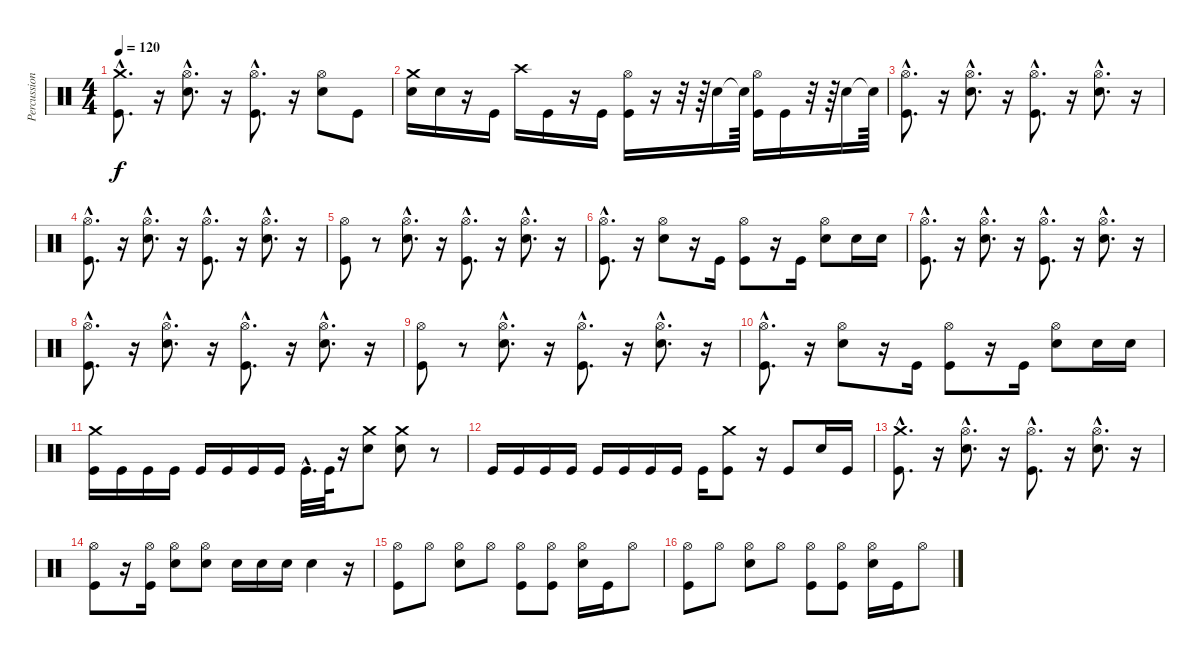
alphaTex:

\track ("Percussion" "Percussion") {instrument percussion}
\staff {score}
\articulation defaults
\ts (4 4)
\tempo 120
\clef neutral
\ks c
("Kick (hit)"{hac} "Crash medium (hit)"{hac}).8{d dy f} r.16 ("Hi-Hat (open)"{hac} "Electric Snare (hit)"{hac}).8{d} r.16 ("Hi-Hat (open)"{hac} "Kick (hit)"{hac}).8{d} r.16 ("Hi-Hat (open)" "Electric Snare (hit)").8 "Kick (hit)".8 |
("Electric Snare (hit)" "Crash medium (hit)").16 "Electric Snare (hit)".16 r.16 "Kick (hit)".16 "Crash high (hit)".16 "Kick (hit)".16 r.16 "Kick (hit)".16 ("Hi-Hat (open)" "Kick (hit)").16 r.16 r.32 r.64 "Electric Snare (hit)".16 "Snare (hit)"{t}.64 ("Hi-Hat (open)" "Kick (hit)").16 "Kick (hit)".16 r.32 r.64 "Electric Snare (hit)".16 "Snare (hit)"{t}.64 |
("Hi-Hat (open)"{hac} "Kick (hit)"{hac}).8{d} r.16 ("Hi-Hat (open)"{hac} "Electric Snare (hit)"{hac}).8{d} r.16 ("Hi-Hat (open)"{hac} "Kick (hit)"{hac}).8{d} r.16 ("Hi-Hat (open)"{hac} "Electric Snare (hit)"{hac}).8{d} r.16 |
("Hi-Hat (open)"{hac} "Kick (hit)"{hac}).8{d} r.16 ("Hi-Hat (open)"{hac} "Electric Snare (hit)"{hac}).8{d} r.16 ("Hi-Hat (open)"{hac} "Kick (hit)"{hac}).8{d} r.16 ("Hi-Hat (open)"{hac} "Electric Snare (hit)"{hac}).8{d} r.16 |
("Hi-Hat (open)" "Kick (hit)").8 r.8 ("Hi-Hat (open)"{hac} "Electric Snare (hit)"{hac}).8{d} r.16 ("Hi-Hat (open)"{hac} "Kick (hit)"{hac}).8{d} r.16 ("Hi-Hat (open)"{hac} "Electric Snare (hit)"{hac}).8{d} r.16 |
("Hi-Hat (open)"{hac} "Kick (hit)"{hac}).8{d} r.16 ("Hi-Hat (open)" "Electric Snare (hit)").8 r.16 "Kick (hit)".16 ("Hi-Hat (open)" "Kick (hit)").8 r.16 "Kick (hit)".16 ("Hi-Hat (open)" "Electric Snare (hit)").8 "Electric Snare (hit)".16 "Electric Snare (hit)".16 |
("Hi-Hat (open)"{hac} "Kick (hit)"{hac}).8{d} r.16 ("Hi-Hat (open)"{hac} "Electric Snare (hit)"{hac}).8{d} r.16 ("Hi-Hat (open)"{hac} "Kick (hit)"{hac}).8{d} r.16 ("Hi-Hat (open)"{hac} "Electric Snare (hit)"{hac}).8{d} r.16 |
("Hi-Hat (open)"{hac} "Kick (hit)"{hac}).8{d} r.16 ("Hi-Hat (open)"{hac} "Electric Snare (hit)"{hac}).8{d} r.16 ("Hi-Hat (open)"{hac} "Kick (hit)"{hac}).8{d} r.16 ("Hi-Hat (open)"{hac} "Electric Snare (hit)"{hac}).8{d} r.16 |
("Hi-Hat (open)" "Kick (hit)").8 r.8 ("Hi-Hat (open)"{hac} "Electric Snare (hit)"{hac}).8{d} r.16 ("Hi-Hat (open)"{hac} "Kick (hit)"{hac}).8{d} r.16 ("Hi-Hat (open)"{hac} "Electric Snare (hit)"{hac}).8{d} r.16 |
("Hi-Hat (open)"{hac} "Kick (hit)"{hac}).8{d} r.16 ("Hi-Hat (open)" "Electric Snare (hit)").8 r.16 "Kick (hit)".16 ("Hi-Hat (open)" "Kick (hit)").8 r.16 "Kick (hit)".16 ("Hi-Hat (open)" "Electric Snare (hit)").8 "Electric Snare (hit)".16 "Electric Snare (hit)".16 |
("Kick (hit)" "Crash medium (hit)").16 "Kick (hit)".16 "Kick (hit)".16 "Kick (hit)".16 "Kick (hit)".16 "Kick (hit)".16 "Kick (hit)".16 "Kick (hit)".16 "Kick (hit)"{hac}.32{d} "Kick (hit)".64 r.16 ("Electric Snare (hit)" "Crash medium (hit)").8 ("Electric Snare (hit)" "Crash medium (hit)").8 r.8 |
"Kick (hit)".16 "Kick (hit)".16 "Kick (hit)".16 "Kick (hit)".16 "Kick (hit)".16 "Kick (hit)".16 "Kick (hit)".16 "Kick (hit)".16 "Kick (hit)".16 ("Crash medium (hit)" "Kick (hit)").8 r.16 "Kick (hit)".8 "Electric Snare (hit)".16 "Kick (hit)".16 |
("Kick (hit)"{hac} "Crash medium (hit)"{hac}).8{d} r.16 ("Hi-Hat (open)"{hac} "Electric Snare (hit)"{hac}).8{d} r.16 ("Hi-Hat (open)"{hac} "Kick (hit)"{hac}).8{d} r.16 ("Hi-Hat (open)"{hac} "Electric Snare (hit)"{hac}).8{d} r.16 |
("Hi-Hat (open)" "Kick (hit)").8 r.16 ("Hi-Hat (open)" "Kick (hit)").16 ("Hi-Hat (open)" "Electric Snare (hit)").8 ("Hi-Hat (open)" "Electric Snare (hit)").8 "Electric Snare (hit)".16 "Electric Snare (hit)".16 "Electric Snare (hit)".16 "Electric Snare (hit)".4 r.16 |
("Hi-Hat (open)" "Kick (hit)").8 "Hi-Hat (open)".8 ("Hi-Hat (open)" "Electric Snare (hit)").8 "Hi-Hat (open)".8 ("Hi-Hat (open)" "Kick (hit)").8 ("Hi-Hat (open)" "Kick (hit)").8 ("Hi-Hat (open)" "Electric Snare (hit)").16 "Kick (hit)".16 "Hi-Hat (open)".8 |
("Hi-Hat (open)" "Kick (hit)").8 "Hi-Hat (open)".8 ("Hi-Hat (open)" "Electric Snare (hit)").8 "Hi-Hat (open)".8 ("Hi-Hat (open)" "Kick (hit)").8 ("Hi-Hat (open)" "Kick (hit)").8 ("Hi-Hat (open)" "Electric Snare (hit)").16 "Kick (hit)".16 "Hi-Hat (open)".8
